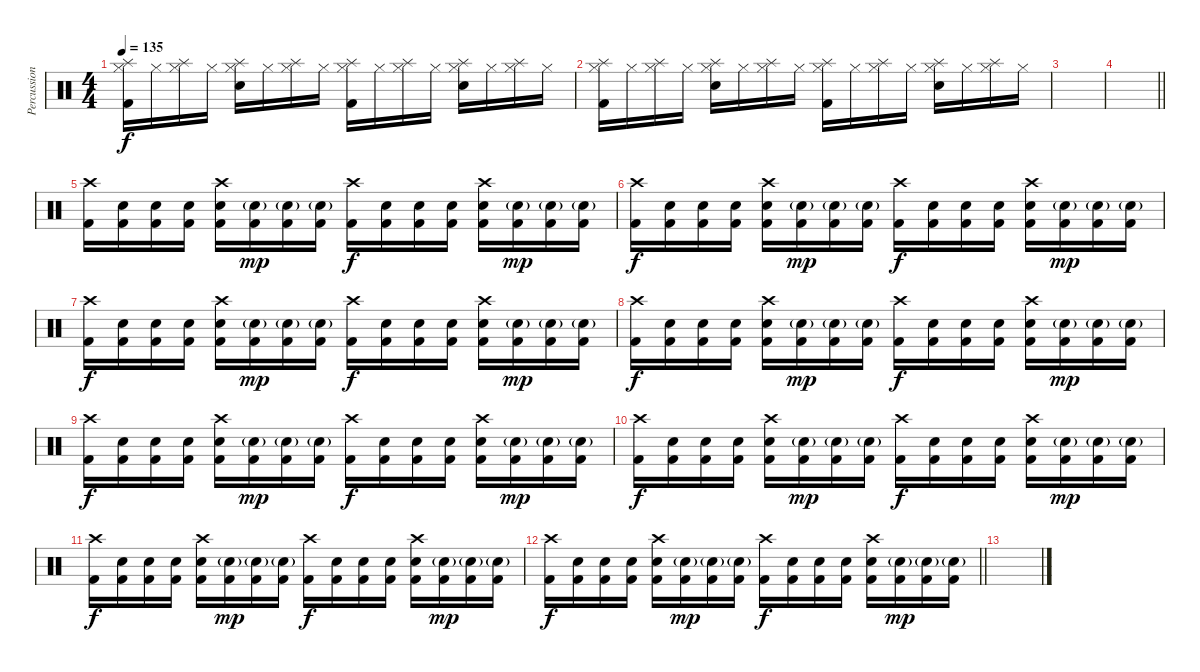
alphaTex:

\track ("Percussion" "Percussion") {instrument percussion}
\staff {score}
\articulation defaults
\ts (4 4)
\tempo 135
\clef neutral
\ks c
("Hi-Hat (closed)" "Splash (hit)" "Kick (hit) 2").16{dy f} "Hi-Hat (closed)".16 ("Hi-Hat (closed)" "Splash (hit)").16 "Hi-Hat (closed)".16 ("Hi-Hat (closed)" "Splash (hit)" "Snare (hit) 2").16 "Hi-Hat (closed)".16 ("Hi-Hat (closed)" "Splash (hit)").16 "Hi-Hat (closed)".16 ("Hi-Hat (closed)" "Splash (hit)" "Kick (hit) 2").16 "Hi-Hat (closed)".16 ("Hi-Hat (closed)" "Splash (hit)").16 "Hi-Hat (closed)".16 ("Hi-Hat (closed)" "Splash (hit)" "Snare (hit) 2").16 "Hi-Hat (closed)".16 ("Hi-Hat (closed)" "Splash (hit)").16 "Hi-Hat (closed)".16 |
("Hi-Hat (closed)" "Splash (hit)" "Kick (hit) 2").16 "Hi-Hat (closed)".16 ("Hi-Hat (closed)" "Splash (hit)").16 "Hi-Hat (closed)".16 ("Hi-Hat (closed)" "Splash (hit)" "Snare (hit) 2").16 "Hi-Hat (closed)".16 ("Hi-Hat (closed)" "Splash (hit)").16 "Hi-Hat (closed)".16 ("Hi-Hat (closed)" "Splash (hit)" "Kick (hit) 2").16 "Hi-Hat (closed)".16 ("Hi-Hat (closed)" "Splash (hit)").16 "Hi-Hat (closed)".16 ("Hi-Hat (closed)" "Splash (hit)" "Snare (hit) 2").16 "Hi-Hat (closed)".16 ("Hi-Hat (closed)" "Splash (hit)").16 "Hi-Hat (closed)".16 |
|
\barLineRight lightlight
|
\section ("" "")
("Crash high (hit)" "Kick (hit) 2").16 ("Snare (hit) 2" "Kick (hit) 2").16 ("Snare (hit) 2" "Kick (hit) 2").16 ("Snare (hit) 2" "Kick (hit) 2").16 ("Crash high (hit)" "Snare (hit) 2" "Kick (hit) 2").16 ("Snare (hit) 2"{g} "Kick (hit) 2").16{dy mp} ("Snare (hit) 2"{g} "Kick (hit) 2").16 ("Snare (hit) 2"{g} "Kick (hit) 2").16 ("Crash high (hit)" "Kick (hit) 2").16{dy f} ("Snare (hit) 2" "Kick (hit) 2").16 ("Snare (hit) 2" "Kick (hit) 2").16 ("Snare (hit) 2" "Kick (hit) 2").16 ("Crash high (hit)" "Snare (hit) 2" "Kick (hit) 2").16 ("Snare (hit) 2"{g} "Kick (hit) 2").16{dy mp} ("Snare (hit) 2"{g} "Kick (hit) 2").16 ("Snare (hit) 2"{g} "Kick (hit) 2").16 |
("Crash high (hit)" "Kick (hit) 2").16{dy f} ("Snare (hit) 2" "Kick (hit) 2").16 ("Snare (hit) 2" "Kick (hit) 2").16 ("Snare (hit) 2" "Kick (hit) 2").16 ("Crash high (hit)" "Snare (hit) 2" "Kick (hit) 2").16 ("Snare (hit) 2"{g} "Kick (hit) 2").16{dy mp} ("Snare (hit) 2"{g} "Kick (hit) 2").16 ("Snare (hit) 2"{g} "Kick (hit) 2").16 ("Crash high (hit)" "Kick (hit) 2").16{dy f} ("Snare (hit) 2" "Kick (hit) 2").16 ("Snare (hit) 2" "Kick (hit) 2").16 ("Snare (hit) 2" "Kick (hit) 2").16 ("Crash high (hit)" "Snare (hit) 2" "Kick (hit) 2").16 ("Snare (hit) 2"{g} "Kick (hit) 2").16{dy mp} ("Snare (hit) 2"{g} "Kick (hit) 2").16 ("Snare (hit) 2"{g} "Kick (hit) 2").16 |
("Crash high (hit)" "Kick (hit) 2").16{dy f} ("Snare (hit) 2" "Kick (hit) 2").16 ("Snare (hit) 2" "Kick (hit) 2").16 ("Snare (hit) 2" "Kick (hit) 2").16 ("Crash high (hit)" "Snare (hit) 2" "Kick (hit) 2").16 ("Snare (hit) 2"{g} "Kick (hit) 2").16{dy mp} ("Snare (hit) 2"{g} "Kick (hit) 2").16 ("Snare (hit) 2"{g} "Kick (hit) 2").16 ("Crash high (hit)" "Kick (hit) 2").16{dy f} ("Snare (hit) 2" "Kick (hit) 2").16 ("Snare (hit) 2" "Kick (hit) 2").16 ("Snare (hit) 2" "Kick (hit) 2").16 ("Crash high (hit)" "Snare (hit) 2" "Kick (hit) 2").16 ("Snare (hit) 2"{g} "Kick (hit) 2").16{dy mp} ("Snare (hit) 2"{g} "Kick (hit) 2").16 ("Snare (hit) 2"{g} "Kick (hit) 2").16 |
("Crash high (hit)" "Kick (hit) 2").16{dy f} ("Snare (hit) 2" "Kick (hit) 2").16 ("Snare (hit) 2" "Kick (hit) 2").16 ("Snare (hit) 2" "Kick (hit) 2").16 ("Crash high (hit)" "Snare (hit) 2" "Kick (hit) 2").16 ("Snare (hit) 2"{g} "Kick (hit) 2").16{dy mp} ("Snare (hit) 2"{g} "Kick (hit) 2").16 ("Snare (hit) 2"{g} "Kick (hit) 2").16 ("Crash high (hit)" "Kick (hit) 2").16{dy f} ("Snare (hit) 2" "Kick (hit) 2").16 ("Snare (hit) 2" "Kick (hit) 2").16 ("Snare (hit) 2" "Kick (hit) 2").16 ("Crash high (hit)" "Snare (hit) 2" "Kick (hit) 2").16 ("Snare (hit) 2"{g} "Kick (hit) 2").16{dy mp} ("Snare (hit) 2"{g} "Kick (hit) 2").16 ("Snare (hit) 2"{g} "Kick (hit) 2").16 |
("Crash high (hit)" "Kick (hit) 2").16{dy f} ("Snare (hit) 2" "Kick (hit) 2").16 ("Snare (hit) 2" "Kick (hit) 2").16 ("Snare (hit) 2" "Kick (hit) 2").16 ("Crash high (hit)" "Snare (hit) 2" "Kick (hit) 2").16 ("Snare (hit) 2"{g} "Kick (hit) 2").16{dy mp} ("Snare (hit) 2"{g} "Kick (hit) 2").16 ("Snare (hit) 2"{g} "Kick (hit) 2").16 ("Crash high (hit)" "Kick (hit) 2").16{dy f} ("Snare (hit) 2" "Kick (hit) 2").16 ("Snare (hit) 2" "Kick (hit) 2").16 ("Snare (hit) 2" "Kick (hit) 2").16 ("Crash high (hit)" "Snare (hit) 2" "Kick (hit) 2").16 ("Snare (hit) 2"{g} "Kick (hit) 2").16{dy mp} ("Snare (hit) 2"{g} "Kick (hit) 2").16 ("Snare (hit) 2"{g} "Kick (hit) 2").16 |
("Crash high (hit)" "Kick (hit) 2").16{dy f} ("Snare (hit) 2" "Kick (hit) 2").16 ("Snare (hit) 2" "Kick (hit) 2").16 ("Snare (hit) 2" "Kick (hit) 2").16 ("Crash high (hit)" "Snare (hit) 2" "Kick (hit) 2").16 ("Snare (hit) 2"{g} "Kick (hit) 2").16{dy mp} ("Snare (hit) 2"{g} "Kick (hit) 2").16 ("Snare (hit) 2"{g} "Kick (hit) 2").16 ("Crash high (hit)" "Kick (hit) 2").16{dy f} ("Snare (hit) 2" "Kick (hit) 2").16 ("Snare (hit) 2" "Kick (hit) 2").16 ("Snare (hit) 2" "Kick (hit) 2").16 ("Crash high (hit)" "Snare (hit) 2" "Kick (hit) 2").16 ("Snare (hit) 2"{g} "Kick (hit) 2").16{dy mp} ("Snare (hit) 2"{g} "Kick (hit) 2").16 ("Snare (hit) 2"{g} "Kick (hit) 2").16 |
("Crash high (hit)" "Kick (hit) 2").16{dy f} ("Snare (hit) 2" "Kick (hit) 2").16 ("Snare (hit) 2" "Kick (hit) 2").16 ("Snare (hit) 2" "Kick (hit) 2").16 ("Crash high (hit)" "Snare (hit) 2" "Kick (hit) 2").16 ("Snare (hit) 2"{g} "Kick (hit) 2").16{dy mp} ("Snare (hit) 2"{g} "Kick (hit) 2").16 ("Snare (hit) 2"{g} "Kick (hit) 2").16 ("Crash high (hit)" "Kick (hit) 2").16{dy f} ("Snare (hit) 2" "Kick (hit) 2").16 ("Snare (hit) 2" "Kick (hit) 2").16 ("Snare (hit) 2" "Kick (hit) 2").16 ("Crash high (hit)" "Snare (hit) 2" "Kick (hit) 2").16 ("Snare (hit) 2"{g} "Kick (hit) 2").16{dy mp} ("Snare (hit) 2"{g} "Kick (hit) 2").16 ("Snare (hit) 2"{g} "Kick (hit) 2").16 |
\barLineRight lightlight
("Crash high (hit)" "Kick (hit) 2").16{dy f} ("Snare (hit) 2" "Kick (hit) 2").16 ("Snare (hit) 2" "Kick (hit) 2").16 ("Snare (hit) 2" "Kick (hit) 2").16 ("Crash high (hit)" "Snare (hit) 2" "Kick (hit) 2").16 ("Snare (hit) 2"{g} "Kick (hit) 2").16{dy mp} ("Snare (hit) 2"{g} "Kick (hit) 2").16 ("Snare (hit) 2"{g} "Kick (hit) 2").16 ("Crash high (hit)" "Kick (hit) 2").16{dy f} ("Snare (hit) 2" "Kick (hit) 2").16 ("Snare (hit) 2" "Kick (hit) 2").16 ("Snare (hit) 2" "Kick (hit) 2").16 ("Crash high (hit)" "Snare (hit) 2" "Kick (hit) 2").16 ("Snare (hit) 2"{g} "Kick (hit) 2").16{dy mp} ("Snare (hit) 2"{g} "Kick (hit) 2").16 ("Snare (hit) 2"{g} "Kick (hit) 2").16 |
\section ("" "")
